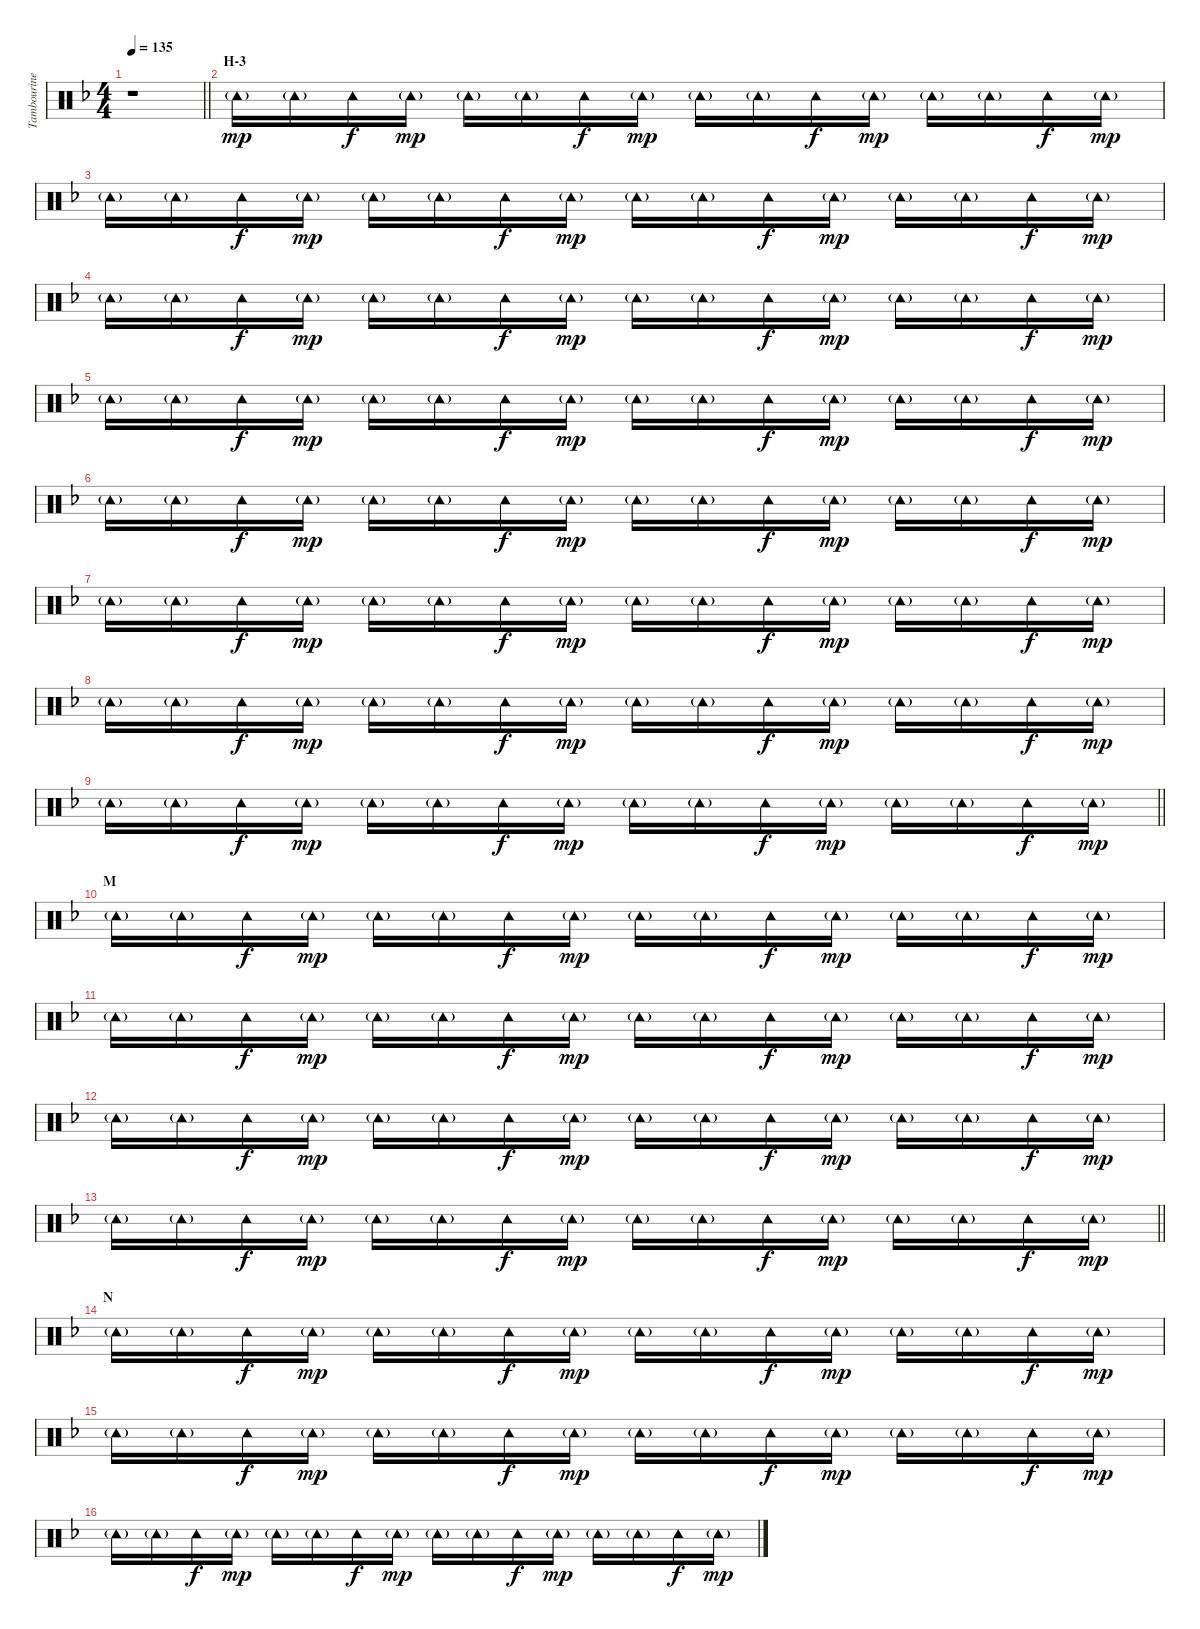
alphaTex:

\track ("Tambourine" "Tambourine") {instrument percussion}
\staff {score}
\articulation defaults
\ts (4 4)
\tempo 135
\clef neutral
\barLineRight lightlight
\ks f
r.1{dy mp} |
\section ("" "H-3")
"Tambourine (hit)"{g}.16 "Tambourine (hit)"{g}.16 "Tambourine (hit)".16{dy f} "Tambourine (hit)"{g}.16{dy mp} "Tambourine (hit)"{g}.16 "Tambourine (hit)"{g}.16 "Tambourine (hit)".16{dy f} "Tambourine (hit)"{g}.16{dy mp} "Tambourine (hit)"{g}.16 "Tambourine (hit)"{g}.16 "Tambourine (hit)".16{dy f} "Tambourine (hit)"{g}.16{dy mp} "Tambourine (hit)"{g}.16 "Tambourine (hit)"{g}.16 "Tambourine (hit)".16{dy f} "Tambourine (hit)"{g}.16{dy mp} |
"Tambourine (hit)"{g}.16 "Tambourine (hit)"{g}.16 "Tambourine (hit)".16{dy f} "Tambourine (hit)"{g}.16{dy mp} "Tambourine (hit)"{g}.16 "Tambourine (hit)"{g}.16 "Tambourine (hit)".16{dy f} "Tambourine (hit)"{g}.16{dy mp} "Tambourine (hit)"{g}.16 "Tambourine (hit)"{g}.16 "Tambourine (hit)".16{dy f} "Tambourine (hit)"{g}.16{dy mp} "Tambourine (hit)"{g}.16 "Tambourine (hit)"{g}.16 "Tambourine (hit)".16{dy f} "Tambourine (hit)"{g}.16{dy mp} |
"Tambourine (hit)"{g}.16 "Tambourine (hit)"{g}.16 "Tambourine (hit)".16{dy f} "Tambourine (hit)"{g}.16{dy mp} "Tambourine (hit)"{g}.16 "Tambourine (hit)"{g}.16 "Tambourine (hit)".16{dy f} "Tambourine (hit)"{g}.16{dy mp} "Tambourine (hit)"{g}.16 "Tambourine (hit)"{g}.16 "Tambourine (hit)".16{dy f} "Tambourine (hit)"{g}.16{dy mp} "Tambourine (hit)"{g}.16 "Tambourine (hit)"{g}.16 "Tambourine (hit)".16{dy f} "Tambourine (hit)"{g}.16{dy mp} |
"Tambourine (hit)"{g}.16 "Tambourine (hit)"{g}.16 "Tambourine (hit)".16{dy f} "Tambourine (hit)"{g}.16{dy mp} "Tambourine (hit)"{g}.16 "Tambourine (hit)"{g}.16 "Tambourine (hit)".16{dy f} "Tambourine (hit)"{g}.16{dy mp} "Tambourine (hit)"{g}.16 "Tambourine (hit)"{g}.16 "Tambourine (hit)".16{dy f} "Tambourine (hit)"{g}.16{dy mp} "Tambourine (hit)"{g}.16 "Tambourine (hit)"{g}.16 "Tambourine (hit)".16{dy f} "Tambourine (hit)"{g}.16{dy mp} |
"Tambourine (hit)"{g}.16 "Tambourine (hit)"{g}.16 "Tambourine (hit)".16{dy f} "Tambourine (hit)"{g}.16{dy mp} "Tambourine (hit)"{g}.16 "Tambourine (hit)"{g}.16 "Tambourine (hit)".16{dy f} "Tambourine (hit)"{g}.16{dy mp} "Tambourine (hit)"{g}.16 "Tambourine (hit)"{g}.16 "Tambourine (hit)".16{dy f} "Tambourine (hit)"{g}.16{dy mp} "Tambourine (hit)"{g}.16 "Tambourine (hit)"{g}.16 "Tambourine (hit)".16{dy f} "Tambourine (hit)"{g}.16{dy mp} |
"Tambourine (hit)"{g}.16 "Tambourine (hit)"{g}.16 "Tambourine (hit)".16{dy f} "Tambourine (hit)"{g}.16{dy mp} "Tambourine (hit)"{g}.16 "Tambourine (hit)"{g}.16 "Tambourine (hit)".16{dy f} "Tambourine (hit)"{g}.16{dy mp} "Tambourine (hit)"{g}.16 "Tambourine (hit)"{g}.16 "Tambourine (hit)".16{dy f} "Tambourine (hit)"{g}.16{dy mp} "Tambourine (hit)"{g}.16 "Tambourine (hit)"{g}.16 "Tambourine (hit)".16{dy f} "Tambourine (hit)"{g}.16{dy mp} |
"Tambourine (hit)"{g}.16 "Tambourine (hit)"{g}.16 "Tambourine (hit)".16{dy f} "Tambourine (hit)"{g}.16{dy mp} "Tambourine (hit)"{g}.16 "Tambourine (hit)"{g}.16 "Tambourine (hit)".16{dy f} "Tambourine (hit)"{g}.16{dy mp} "Tambourine (hit)"{g}.16 "Tambourine (hit)"{g}.16 "Tambourine (hit)".16{dy f} "Tambourine (hit)"{g}.16{dy mp} "Tambourine (hit)"{g}.16 "Tambourine (hit)"{g}.16 "Tambourine (hit)".16{dy f} "Tambourine (hit)"{g}.16{dy mp} |
\barLineRight lightlight "Tambourine (hit)"{g}.16 "Tambourine (hit)"{g}.16 "Tambourine (hit)".16{dy f} "Tambourine (hit)"{g}.16{dy mp} "Tambourine (hit)"{g}.16 "Tambourine (hit)"{g}.16 "Tambourine (hit)".16{dy f} "Tambourine (hit)"{g}.16{dy mp} "Tambourine (hit)"{g}.16 "Tambourine (hit)"{g}.16 "Tambourine (hit)".16{dy f} "Tambourine (hit)"{g}.16{dy mp} "Tambourine (hit)"{g}.16 "Tambourine (hit)"{g}.16 "Tambourine (hit)".16{dy f} "Tambourine (hit)"{g}.16{dy mp}
|
\section ("" "M")
"Tambourine (hit)"{g}.16 "Tambourine (hit)"{g}.16 "Tambourine (hit)".16{dy f} "Tambourine (hit)"{g}.16{dy mp} "Tambourine (hit)"{g}.16 "Tambourine (hit)"{g}.16 "Tambourine (hit)".16{dy f} "Tambourine (hit)"{g}.16{dy mp} "Tambourine (hit)"{g}.16 "Tambourine (hit)"{g}.16 "Tambourine (hit)".16{dy f} "Tambourine (hit)"{g}.16{dy mp} "Tambourine (hit)"{g}.16 "Tambourine (hit)"{g}.16 "Tambourine (hit)".16{dy f} "Tambourine (hit)"{g}.16{dy mp} |
"Tambourine (hit)"{g}.16 "Tambourine (hit)"{g}.16 "Tambourine (hit)".16{dy f} "Tambourine (hit)"{g}.16{dy mp} "Tambourine (hit)"{g}.16 "Tambourine (hit)"{g}.16 "Tambourine (hit)".16{dy f} "Tambourine (hit)"{g}.16{dy mp} "Tambourine (hit)"{g}.16 "Tambourine (hit)"{g}.16 "Tambourine (hit)".16{dy f} "Tambourine (hit)"{g}.16{dy mp} "Tambourine (hit)"{g}.16 "Tambourine (hit)"{g}.16 "Tambourine (hit)".16{dy f} "Tambourine (hit)"{g}.16{dy mp} |
"Tambourine (hit)"{g}.16 "Tambourine (hit)"{g}.16 "Tambourine (hit)".16{dy f} "Tambourine (hit)"{g}.16{dy mp} "Tambourine (hit)"{g}.16 "Tambourine (hit)"{g}.16 "Tambourine (hit)".16{dy f} "Tambourine (hit)"{g}.16{dy mp} "Tambourine (hit)"{g}.16 "Tambourine (hit)"{g}.16 "Tambourine (hit)".16{dy f} "Tambourine (hit)"{g}.16{dy mp} "Tambourine (hit)"{g}.16 "Tambourine (hit)"{g}.16 "Tambourine (hit)".16{dy f} "Tambourine (hit)"{g}.16{dy mp} |
\barLineRight lightlight "Tambourine (hit)"{g}.16 "Tambourine (hit)"{g}.16 "Tambourine (hit)".16{dy f} "Tambourine (hit)"{g}.16{dy mp} "Tambourine (hit)"{g}.16 "Tambourine (hit)"{g}.16 "Tambourine (hit)".16{dy f} "Tambourine (hit)"{g}.16{dy mp} "Tambourine (hit)"{g}.16 "Tambourine (hit)"{g}.16 "Tambourine (hit)".16{dy f} "Tambourine (hit)"{g}.16{dy mp} "Tambourine (hit)"{g}.16 "Tambourine (hit)"{g}.16 "Tambourine (hit)".16{dy f} "Tambourine (hit)"{g}.16{dy mp}
|
\section ("" "N")
"Tambourine (hit)"{g}.16 "Tambourine (hit)"{g}.16 "Tambourine (hit)".16{dy f} "Tambourine (hit)"{g}.16{dy mp} "Tambourine (hit)"{g}.16 "Tambourine (hit)"{g}.16 "Tambourine (hit)".16{dy f} "Tambourine (hit)"{g}.16{dy mp} "Tambourine (hit)"{g}.16 "Tambourine (hit)"{g}.16 "Tambourine (hit)".16{dy f} "Tambourine (hit)"{g}.16{dy mp} "Tambourine (hit)"{g}.16 "Tambourine (hit)"{g}.16 "Tambourine (hit)".16{dy f} "Tambourine (hit)"{g}.16{dy mp} |
"Tambourine (hit)"{g}.16 "Tambourine (hit)"{g}.16 "Tambourine (hit)".16{dy f} "Tambourine (hit)"{g}.16{dy mp} "Tambourine (hit)"{g}.16 "Tambourine (hit)"{g}.16 "Tambourine (hit)".16{dy f} "Tambourine (hit)"{g}.16{dy mp} "Tambourine (hit)"{g}.16 "Tambourine (hit)"{g}.16 "Tambourine (hit)".16{dy f} "Tambourine (hit)"{g}.16{dy mp} "Tambourine (hit)"{g}.16 "Tambourine (hit)"{g}.16 "Tambourine (hit)".16{dy f} "Tambourine (hit)"{g}.16{dy mp} |
"Tambourine (hit)"{g}.16 "Tambourine (hit)"{g}.16 "Tambourine (hit)".16{dy f} "Tambourine (hit)"{g}.16{dy mp} "Tambourine (hit)"{g}.16 "Tambourine (hit)"{g}.16 "Tambourine (hit)".16{dy f} "Tambourine (hit)"{g}.16{dy mp} "Tambourine (hit)"{g}.16 "Tambourine (hit)"{g}.16 "Tambourine (hit)".16{dy f} "Tambourine (hit)"{g}.16{dy mp} "Tambourine (hit)"{g}.16 "Tambourine (hit)"{g}.16 "Tambourine (hit)".16{dy f} "Tambourine (hit)"{g}.16{dy mp}
